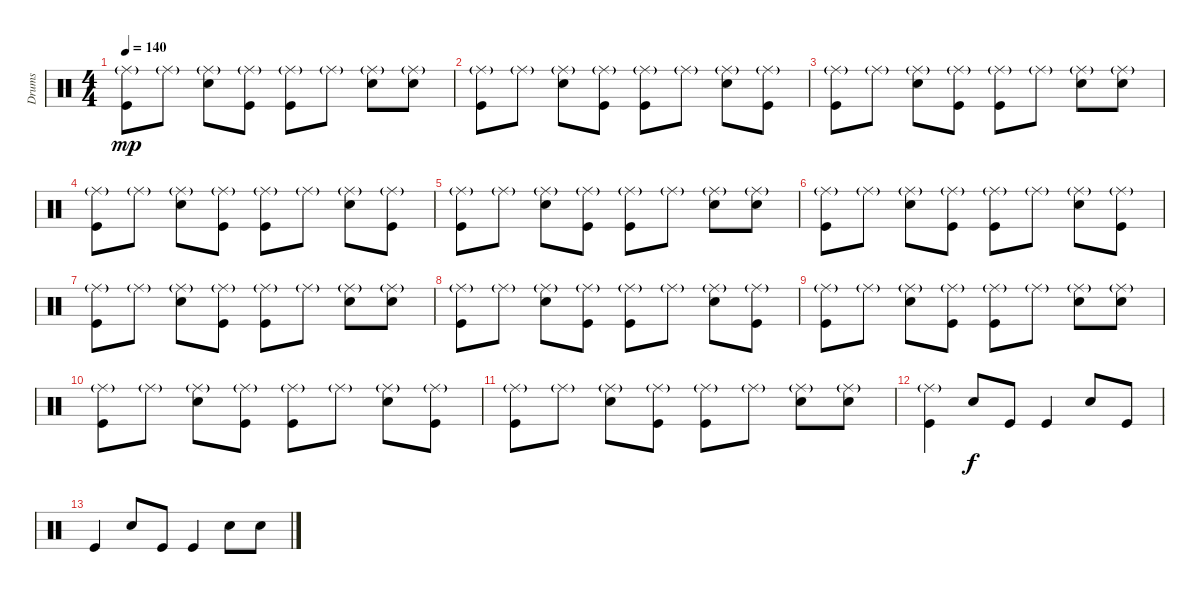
\track ("Drums" "Drums") {instrument percussion}
\staff {score}
\articulation defaults
\ts (4 4)
\tempo 140
\clef neutral
\ks c
("Ride (middle)"{g} "Kick (hit)").8{dy mp} "Ride (middle)"{g}.8 ("Ride (middle)"{g} "Electric Snare (hit)").8 ("Ride (middle)"{g} "Kick (hit)").8 ("Ride (middle)"{g} "Kick (hit)").8 "Ride (middle)"{g}.8 ("Ride (middle)"{g} "Electric Snare (hit)").8 ("Ride (middle)"{g} "Electric Snare (hit)").8 |
("Ride (middle)"{g} "Kick (hit)").8 "Ride (middle)"{g}.8 ("Ride (middle)"{g} "Electric Snare (hit)").8 ("Ride (middle)"{g} "Kick (hit)").8 ("Ride (middle)"{g} "Kick (hit)").8 "Ride (middle)"{g}.8 ("Ride (middle)"{g} "Electric Snare (hit)").8 ("Ride (middle)"{g} "Kick (hit)").8 |
("Ride (middle)"{g} "Kick (hit)").8 "Ride (middle)"{g}.8 ("Ride (middle)"{g} "Electric Snare (hit)").8 ("Ride (middle)"{g} "Kick (hit)").8 ("Ride (middle)"{g} "Kick (hit)").8 "Ride (middle)"{g}.8 ("Ride (middle)"{g} "Electric Snare (hit)").8 ("Ride (middle)"{g} "Electric Snare (hit)").8 |
("Ride (middle)"{g} "Kick (hit)").8 "Ride (middle)"{g}.8 ("Ride (middle)"{g} "Electric Snare (hit)").8 ("Ride (middle)"{g} "Kick (hit)").8 ("Ride (middle)"{g} "Kick (hit)").8 "Ride (middle)"{g}.8 ("Ride (middle)"{g} "Electric Snare (hit)").8 ("Ride (middle)"{g} "Kick (hit)").8 |
("Ride (middle)"{g} "Kick (hit)").8 "Ride (middle)"{g}.8 ("Ride (middle)"{g} "Electric Snare (hit)").8 ("Ride (middle)"{g} "Kick (hit)").8 ("Ride (middle)"{g} "Kick (hit)").8 "Ride (middle)"{g}.8 ("Ride (middle)"{g} "Electric Snare (hit)").8 ("Ride (middle)"{g} "Electric Snare (hit)").8 |
("Ride (middle)"{g} "Kick (hit)").8 "Ride (middle)"{g}.8 ("Ride (middle)"{g} "Electric Snare (hit)").8 ("Ride (middle)"{g} "Kick (hit)").8 ("Ride (middle)"{g} "Kick (hit)").8 "Ride (middle)"{g}.8 ("Ride (middle)"{g} "Electric Snare (hit)").8 ("Ride (middle)"{g} "Kick (hit)").8 |
("Ride (middle)"{g} "Kick (hit)").8 "Ride (middle)"{g}.8 ("Ride (middle)"{g} "Electric Snare (hit)").8 ("Ride (middle)"{g} "Kick (hit)").8 ("Ride (middle)"{g} "Kick (hit)").8 "Ride (middle)"{g}.8 ("Ride (middle)"{g} "Electric Snare (hit)").8 ("Ride (middle)"{g} "Electric Snare (hit)").8 |
("Ride (middle)"{g} "Kick (hit)").8 "Ride (middle)"{g}.8 ("Ride (middle)"{g} "Electric Snare (hit)").8 ("Ride (middle)"{g} "Kick (hit)").8 ("Ride (middle)"{g} "Kick (hit)").8 "Ride (middle)"{g}.8 ("Ride (middle)"{g} "Electric Snare (hit)").8 ("Ride (middle)"{g} "Kick (hit)").8 |
("Ride (middle)"{g} "Kick (hit)").8 "Ride (middle)"{g}.8 ("Ride (middle)"{g} "Electric Snare (hit)").8 ("Ride (middle)"{g} "Kick (hit)").8 ("Ride (middle)"{g} "Kick (hit)").8 "Ride (middle)"{g}.8 ("Ride (middle)"{g} "Electric Snare (hit)").8 ("Ride (middle)"{g} "Electric Snare (hit)").8 |
("Ride (middle)"{g} "Kick (hit)").8 "Ride (middle)"{g}.8 ("Ride (middle)"{g} "Electric Snare (hit)").8 ("Ride (middle)"{g} "Kick (hit)").8 ("Ride (middle)"{g} "Kick (hit)").8 "Ride (middle)"{g}.8 ("Ride (middle)"{g} "Electric Snare (hit)").8 ("Ride (middle)"{g} "Kick (hit)").8 |
("Ride (middle)"{g} "Kick (hit)").8 "Ride (middle)"{g}.8 ("Ride (middle)"{g} "Electric Snare (hit)").8 ("Ride (middle)"{g} "Kick (hit)").8 ("Ride (middle)"{g} "Kick (hit)").8 "Ride (middle)"{g}.8 ("Ride (middle)"{g} "Electric Snare (hit)").8 ("Ride (middle)"{g} "Electric Snare (hit)").8 |
("Ride (middle)"{g} "Kick (hit)").4 "Electric Snare (hit)".8{dy f} "Kick (hit)".8 "Kick (hit)".4 "Electric Snare (hit)".8 "Kick (hit)".8 |
"Kick (hit)".4 "Electric Snare (hit)".8 "Kick (hit)".8 "Kick (hit)".4 "Electric Snare (hit)".8 "Electric Snare (hit)".8
